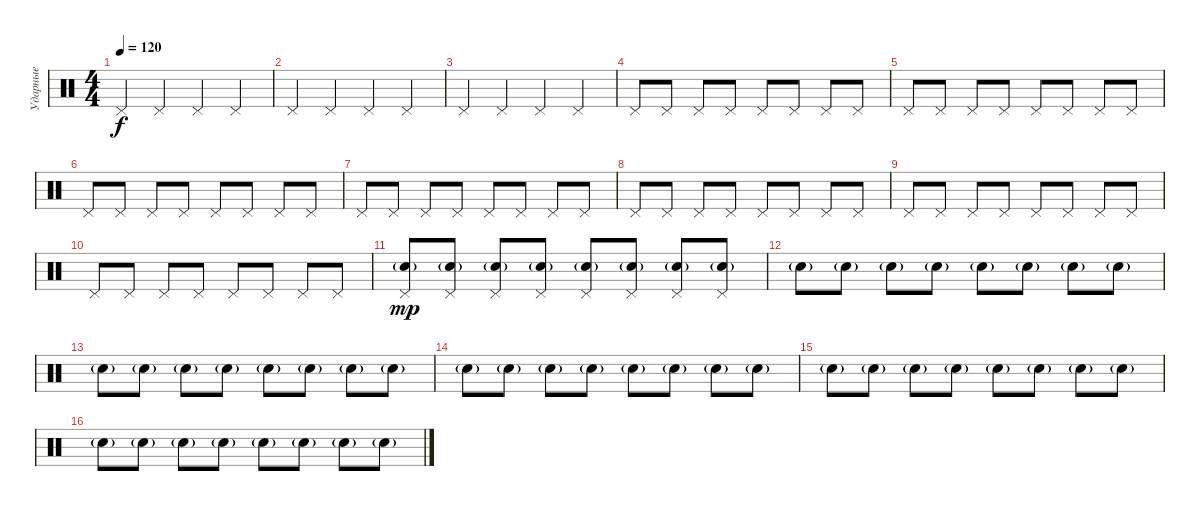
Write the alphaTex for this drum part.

\track ("Ударные" "Ударные") {instrument percussion}
\staff {score}
\articulation defaults
\ts (4 4)
\tempo 120
\clef neutral
\ks c "Pedal Hi-Hat (hit)".4{dy f} "Pedal Hi-Hat (hit)".4 "Pedal Hi-Hat (hit)".4 "Pedal Hi-Hat (hit)".4
|
"Pedal Hi-Hat (hit)".4 "Pedal Hi-Hat (hit)".4 "Pedal Hi-Hat (hit)".4 "Pedal Hi-Hat (hit)".4 |
"Pedal Hi-Hat (hit)".4 "Pedal Hi-Hat (hit)".4 "Pedal Hi-Hat (hit)".4 "Pedal Hi-Hat (hit)".4 |
"Pedal Hi-Hat (hit)".8 "Pedal Hi-Hat (hit)".8 "Pedal Hi-Hat (hit)".8 "Pedal Hi-Hat (hit)".8 "Pedal Hi-Hat (hit)".8 "Pedal Hi-Hat (hit)".8 "Pedal Hi-Hat (hit)".8 "Pedal Hi-Hat (hit)".8 |
"Pedal Hi-Hat (hit)".8 "Pedal Hi-Hat (hit)".8 "Pedal Hi-Hat (hit)".8 "Pedal Hi-Hat (hit)".8 "Pedal Hi-Hat (hit)".8 "Pedal Hi-Hat (hit)".8 "Pedal Hi-Hat (hit)".8 "Pedal Hi-Hat (hit)".8 |
"Pedal Hi-Hat (hit)".8 "Pedal Hi-Hat (hit)".8 "Pedal Hi-Hat (hit)".8 "Pedal Hi-Hat (hit)".8 "Pedal Hi-Hat (hit)".8 "Pedal Hi-Hat (hit)".8 "Pedal Hi-Hat (hit)".8 "Pedal Hi-Hat (hit)".8 |
"Pedal Hi-Hat (hit)".8 "Pedal Hi-Hat (hit)".8 "Pedal Hi-Hat (hit)".8 "Pedal Hi-Hat (hit)".8 "Pedal Hi-Hat (hit)".8 "Pedal Hi-Hat (hit)".8 "Pedal Hi-Hat (hit)".8 "Pedal Hi-Hat (hit)".8 |
"Pedal Hi-Hat (hit)".8 "Pedal Hi-Hat (hit)".8 "Pedal Hi-Hat (hit)".8 "Pedal Hi-Hat (hit)".8 "Pedal Hi-Hat (hit)".8 "Pedal Hi-Hat (hit)".8 "Pedal Hi-Hat (hit)".8 "Pedal Hi-Hat (hit)".8 |
"Pedal Hi-Hat (hit)".8 "Pedal Hi-Hat (hit)".8 "Pedal Hi-Hat (hit)".8 "Pedal Hi-Hat (hit)".8 "Pedal Hi-Hat (hit)".8 "Pedal Hi-Hat (hit)".8 "Pedal Hi-Hat (hit)".8 "Pedal Hi-Hat (hit)".8 |
"Pedal Hi-Hat (hit)".8 "Pedal Hi-Hat (hit)".8 "Pedal Hi-Hat (hit)".8 "Pedal Hi-Hat (hit)".8 "Pedal Hi-Hat (hit)".8 "Pedal Hi-Hat (hit)".8 "Pedal Hi-Hat (hit)".8 "Pedal Hi-Hat (hit)".8 |
("Pedal Hi-Hat (hit)" "Electric Snare (hit)"{g}).8{dy mp} ("Pedal Hi-Hat (hit)" "Electric Snare (hit)"{g}).8 ("Pedal Hi-Hat (hit)" "Electric Snare (hit)"{g}).8 ("Pedal Hi-Hat (hit)" "Electric Snare (hit)"{g}).8 ("Pedal Hi-Hat (hit)" "Electric Snare (hit)"{g}).8 ("Pedal Hi-Hat (hit)" "Electric Snare (hit)"{g}).8 ("Pedal Hi-Hat (hit)" "Electric Snare (hit)"{g}).8 ("Pedal Hi-Hat (hit)" "Electric Snare (hit)"{g}).8 |
"Electric Snare (hit)"{g}.8 "Electric Snare (hit)"{g}.8 "Electric Snare (hit)"{g}.8 "Electric Snare (hit)"{g}.8 "Electric Snare (hit)"{g}.8 "Electric Snare (hit)"{g}.8 "Electric Snare (hit)"{g}.8 "Electric Snare (hit)"{g}.8 |
"Electric Snare (hit)"{g}.8 "Electric Snare (hit)"{g}.8 "Electric Snare (hit)"{g}.8 "Electric Snare (hit)"{g}.8 "Electric Snare (hit)"{g}.8 "Electric Snare (hit)"{g}.8 "Electric Snare (hit)"{g}.8 "Electric Snare (hit)"{g}.8 |
"Electric Snare (hit)"{g}.8 "Electric Snare (hit)"{g}.8 "Electric Snare (hit)"{g}.8 "Electric Snare (hit)"{g}.8 "Electric Snare (hit)"{g}.8 "Electric Snare (hit)"{g}.8 "Electric Snare (hit)"{g}.8 "Electric Snare (hit)"{g}.8 |
"Electric Snare (hit)"{g}.8 "Electric Snare (hit)"{g}.8 "Electric Snare (hit)"{g}.8 "Electric Snare (hit)"{g}.8 "Electric Snare (hit)"{g}.8 "Electric Snare (hit)"{g}.8 "Electric Snare (hit)"{g}.8 "Electric Snare (hit)"{g}.8 |
"Electric Snare (hit)"{g}.8 "Electric Snare (hit)"{g}.8 "Electric Snare (hit)"{g}.8 "Electric Snare (hit)"{g}.8 "Electric Snare (hit)"{g}.8 "Electric Snare (hit)"{g}.8 "Electric Snare (hit)"{g}.8 "Electric Snare (hit)"{g}.8
